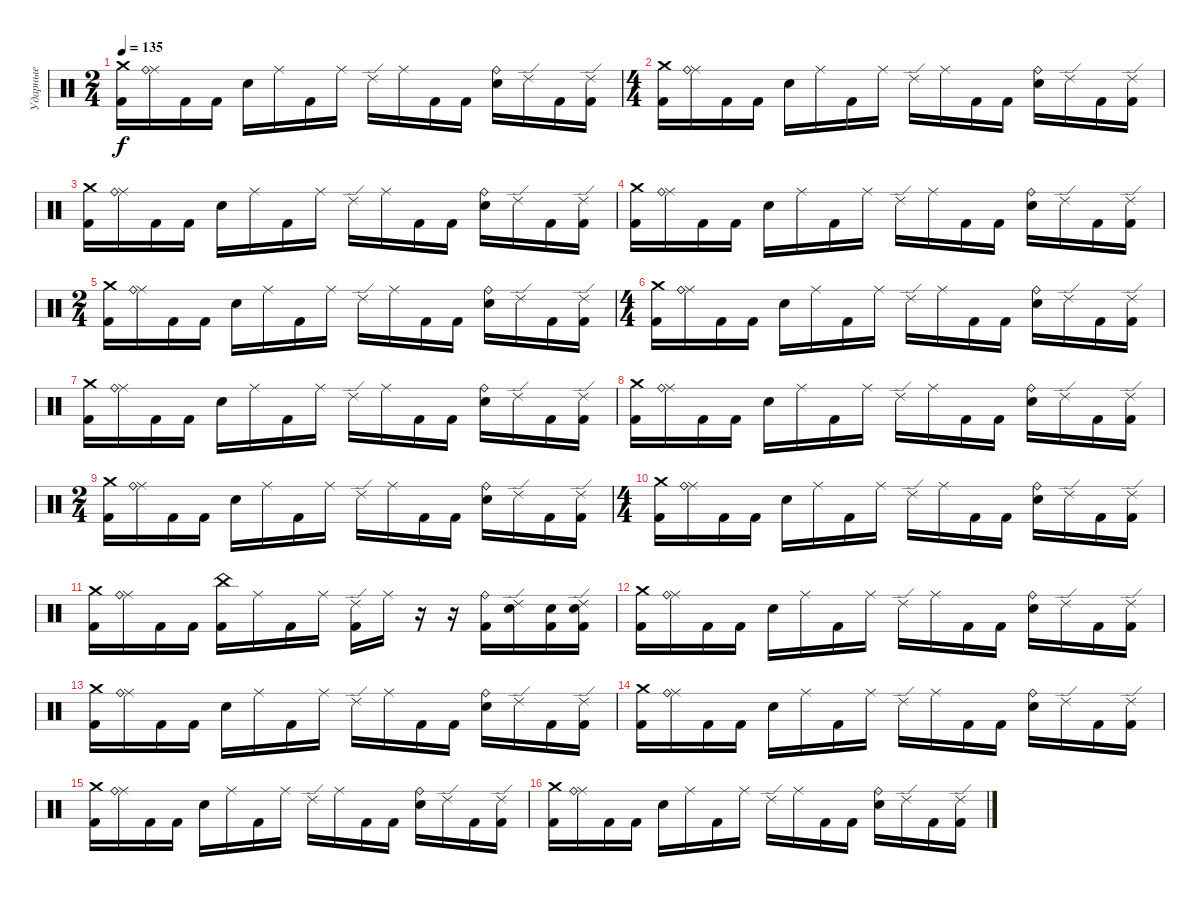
\track ("Ударные" "Ударные") {instrument percussion}
\staff {score}
\articulation defaults
\ts (2 4)
\tempo 135
\clef neutral
\ks c
("Kick (hit) 2" "Crash medium (hit)").16{dy f} ("Ride (middle)" "Ride (bell)").16 "Kick (hit) 2".16 "Kick (hit) 2".16 "Snare (hit) 2".16 "Ride (middle)".16 "Kick (hit) 2".16 "Ride (middle)".16 "Ride (edge) 2".16 "Ride (middle)".16 "Kick (hit) 2".16 "Kick (hit) 2".16 ("Snare (hit) 2" "Ride (bell)").16 "Ride (edge) 2".16 "Kick (hit) 2".16 ("Ride (edge) 2" "Kick (hit) 2").16 |
\ts (4 4)
("Kick (hit) 2" "Crash medium (hit)").16 ("Ride (middle)" "Ride (bell)").16 "Kick (hit) 2".16 "Kick (hit) 2".16 "Snare (hit) 2".16 "Ride (middle)".16 "Kick (hit) 2".16 "Ride (middle)".16 "Ride (edge) 2".16 "Ride (middle)".16 "Kick (hit) 2".16 "Kick (hit) 2".16 ("Snare (hit) 2" "Ride (bell)").16 "Ride (edge) 2".16 "Kick (hit) 2".16 ("Ride (edge) 2" "Kick (hit) 2").16 |
("Kick (hit) 2" "Crash medium (hit)").16 ("Ride (middle)" "Ride (bell)").16 "Kick (hit) 2".16 "Kick (hit) 2".16 "Snare (hit) 2".16 "Ride (middle)".16 "Kick (hit) 2".16 "Ride (middle)".16 "Ride (edge) 2".16 "Ride (middle)".16 "Kick (hit) 2".16 "Kick (hit) 2".16 ("Snare (hit) 2" "Ride (bell)").16 "Ride (edge) 2".16 "Kick (hit) 2".16 ("Ride (edge) 2" "Kick (hit) 2").16 |
("Kick (hit) 2" "Crash medium (hit)").16 ("Ride (middle)" "Ride (bell)").16 "Kick (hit) 2".16 "Kick (hit) 2".16 "Snare (hit) 2".16 "Ride (middle)".16 "Kick (hit) 2".16 "Ride (middle)".16 "Ride (edge) 2".16 "Ride (middle)".16 "Kick (hit) 2".16 "Kick (hit) 2".16 ("Snare (hit) 2" "Ride (bell)").16 "Ride (edge) 2".16 "Kick (hit) 2".16 ("Ride (edge) 2" "Kick (hit) 2").16 |
\ts (2 4)
("Kick (hit) 2" "Crash medium (hit)").16 ("Ride (middle)" "Ride (bell)").16 "Kick (hit) 2".16 "Kick (hit) 2".16 "Snare (hit) 2".16 "Ride (middle)".16 "Kick (hit) 2".16 "Ride (middle)".16 "Ride (edge) 2".16 "Ride (middle)".16 "Kick (hit) 2".16 "Kick (hit) 2".16 ("Snare (hit) 2" "Ride (bell)").16 "Ride (edge) 2".16 "Kick (hit) 2".16 ("Ride (edge) 2" "Kick (hit) 2").16 |
\ts (4 4)
("Kick (hit) 2" "Crash medium (hit)").16 ("Ride (middle)" "Ride (bell)").16 "Kick (hit) 2".16 "Kick (hit) 2".16 "Snare (hit) 2".16 "Ride (middle)".16 "Kick (hit) 2".16 "Ride (middle)".16 "Ride (edge) 2".16 "Ride (middle)".16 "Kick (hit) 2".16 "Kick (hit) 2".16 ("Snare (hit) 2" "Ride (bell)").16 "Ride (edge) 2".16 "Kick (hit) 2".16 ("Ride (edge) 2" "Kick (hit) 2").16 |
("Kick (hit) 2" "Crash medium (hit)").16 ("Ride (middle)" "Ride (bell)").16 "Kick (hit) 2".16 "Kick (hit) 2".16 "Snare (hit) 2".16 "Ride (middle)".16 "Kick (hit) 2".16 "Ride (middle)".16 "Ride (edge) 2".16 "Ride (middle)".16 "Kick (hit) 2".16 "Kick (hit) 2".16 ("Snare (hit) 2" "Ride (bell)").16 "Ride (edge) 2".16 "Kick (hit) 2".16 ("Ride (edge) 2" "Kick (hit) 2").16 |
("Kick (hit) 2" "Crash medium (hit)").16 ("Ride (middle)" "Ride (bell)").16 "Kick (hit) 2".16 "Kick (hit) 2".16 "Snare (hit) 2".16 "Ride (middle)".16 "Kick (hit) 2".16 "Ride (middle)".16 "Ride (edge) 2".16 "Ride (middle)".16 "Kick (hit) 2".16 "Kick (hit) 2".16 ("Snare (hit) 2" "Ride (bell)").16 "Ride (edge) 2".16 "Kick (hit) 2".16 ("Ride (edge) 2" "Kick (hit) 2").16 |
\ts (2 4)
("Kick (hit) 2" "Crash medium (hit)").16 ("Ride (middle)" "Ride (bell)").16 "Kick (hit) 2".16 "Kick (hit) 2".16 "Snare (hit) 2".16 "Ride (middle)".16 "Kick (hit) 2".16 "Ride (middle)".16 "Ride (edge) 2".16 "Ride (middle)".16 "Kick (hit) 2".16 "Kick (hit) 2".16 ("Snare (hit) 2" "Ride (bell)").16 "Ride (edge) 2".16 "Kick (hit) 2".16 ("Ride (edge) 2" "Kick (hit) 2").16 |
\ts (4 4)
("Kick (hit) 2" "Crash medium (hit)").16 ("Ride (middle)" "Ride (bell)").16 "Kick (hit) 2".16 "Kick (hit) 2".16 "Snare (hit) 2".16 "Ride (middle)".16 "Kick (hit) 2".16 "Ride (middle)".16 "Ride (edge) 2".16 "Ride (middle)".16 "Kick (hit) 2".16 "Kick (hit) 2".16 ("Snare (hit) 2" "Ride (bell)").16 "Ride (edge) 2".16 "Kick (hit) 2".16 ("Ride (edge) 2" "Kick (hit) 2").16 |
("Kick (hit) 2" "Crash medium (hit)").16 ("Ride (middle)" "Ride (bell)").16 "Kick (hit) 2".16 "Kick (hit) 2".16 ("Kick (hit) 2" "China (hit)").16 "Ride (middle)".16 "Kick (hit) 2".16 "Ride (middle)".16 ("Ride (edge) 2" "Kick (hit) 2").16 "Ride (middle)".16 r.16 r.16 ("Ride (bell)" "Kick (hit) 2").16 ("Ride (edge) 2" "Snare (hit) 2").16 ("Kick (hit) 2" "Snare (hit) 2").16 ("Ride (edge) 2" "Kick (hit) 2" "Snare (hit) 2").16 |
("Kick (hit) 2" "Crash medium (hit)").16 ("Ride (middle)" "Ride (bell)").16 "Kick (hit) 2".16 "Kick (hit) 2".16 "Snare (hit) 2".16 "Ride (middle)".16 "Kick (hit) 2".16 "Ride (middle)".16 "Ride (edge) 2".16 "Ride (middle)".16 "Kick (hit) 2".16 "Kick (hit) 2".16 ("Snare (hit) 2" "Ride (bell)").16 "Ride (edge) 2".16 "Kick (hit) 2".16 ("Ride (edge) 2" "Kick (hit) 2").16 |
("Kick (hit) 2" "Crash medium (hit)").16 ("Ride (middle)" "Ride (bell)").16 "Kick (hit) 2".16 "Kick (hit) 2".16 "Snare (hit) 2".16 "Ride (middle)".16 "Kick (hit) 2".16 "Ride (middle)".16 "Ride (edge) 2".16 "Ride (middle)".16 "Kick (hit) 2".16 "Kick (hit) 2".16 ("Snare (hit) 2" "Ride (bell)").16 "Ride (edge) 2".16 "Kick (hit) 2".16 ("Ride (edge) 2" "Kick (hit) 2").16 |
("Kick (hit) 2" "Crash medium (hit)").16 ("Ride (middle)" "Ride (bell)").16 "Kick (hit) 2".16 "Kick (hit) 2".16 "Snare (hit) 2".16 "Ride (middle)".16 "Kick (hit) 2".16 "Ride (middle)".16 "Ride (edge) 2".16 "Ride (middle)".16 "Kick (hit) 2".16 "Kick (hit) 2".16 ("Snare (hit) 2" "Ride (bell)").16 "Ride (edge) 2".16 "Kick (hit) 2".16 ("Ride (edge) 2" "Kick (hit) 2").16 |
("Kick (hit) 2" "Crash medium (hit)").16 ("Ride (middle)" "Ride (bell)").16 "Kick (hit) 2".16 "Kick (hit) 2".16 "Snare (hit) 2".16 "Ride (middle)".16 "Kick (hit) 2".16 "Ride (middle)".16 "Ride (edge) 2".16 "Ride (middle)".16 "Kick (hit) 2".16 "Kick (hit) 2".16 ("Snare (hit) 2" "Ride (bell)").16 "Ride (edge) 2".16 "Kick (hit) 2".16 ("Ride (edge) 2" "Kick (hit) 2").16 |
("Kick (hit) 2" "Crash medium (hit)").16 ("Ride (middle)" "Ride (bell)").16 "Kick (hit) 2".16 "Kick (hit) 2".16 "Snare (hit) 2".16 "Ride (middle)".16 "Kick (hit) 2".16 "Ride (middle)".16 "Ride (edge) 2".16 "Ride (middle)".16 "Kick (hit) 2".16 "Kick (hit) 2".16 ("Snare (hit) 2" "Ride (bell)").16 "Ride (edge) 2".16 "Kick (hit) 2".16 ("Ride (edge) 2" "Kick (hit) 2").16
